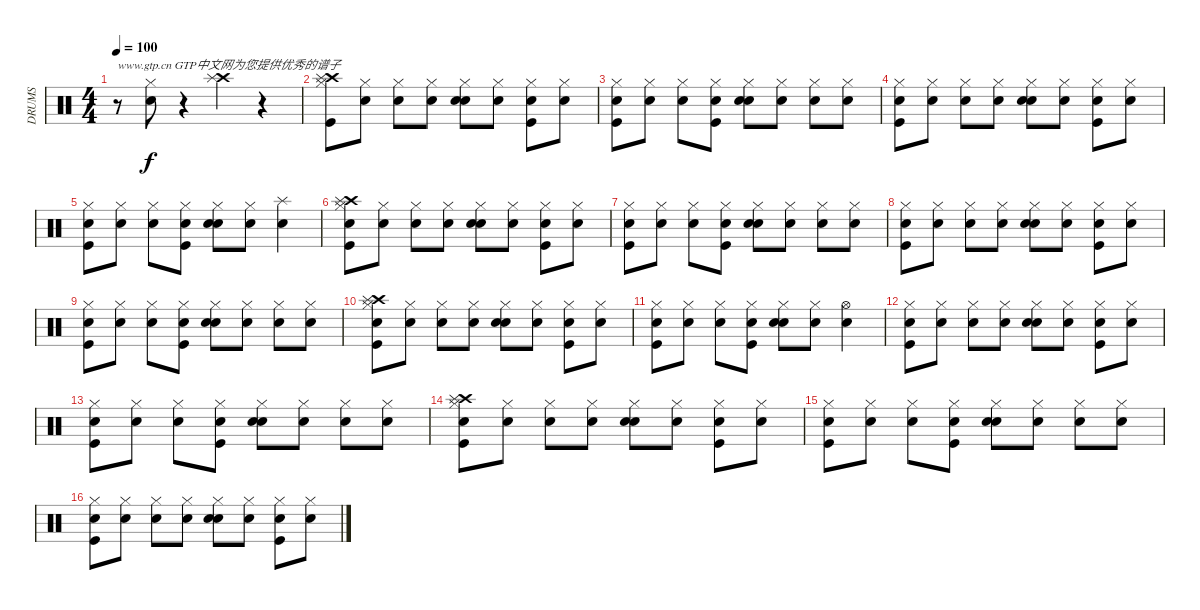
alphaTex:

\track ("DRUMS" "DRUMS") {instrument percussion}
\staff {score}
\articulation defaults
\ts (4 4)
\tempo 100
\clef neutral
\ks c
r.8{txt "www.gtp.cn GTP中文网为您提供优秀的谱子" dy f} ("Snare (hit) 2" "Hi-Hat (closed)").8 r.4 ("Crash high (hit)" "Splash (hit)").4 r.4 |
("Kick (hit)" "Crash high (hit)" "Splash (hit)" "Hi-Hat (closed)").8 ("Snare (hit)" "Hi-Hat (closed)").8 ("Snare (hit)" "Hi-Hat (closed)").8 ("Snare (hit)" "Hi-Hat (closed)").8 ("Snare (hit)" "Snare (hit) 2" "Hi-Hat (closed)").8 ("Snare (hit)" "Hi-Hat (closed)").8 ("Snare (hit)" "Kick (hit)" "Hi-Hat (closed)").8 ("Snare (hit)" "Hi-Hat (closed)").8 |
("Snare (hit)" "Kick (hit)" "Hi-Hat (closed)").8 ("Snare (hit)" "Hi-Hat (closed)").8 ("Snare (hit)" "Hi-Hat (closed)").8 ("Snare (hit)" "Kick (hit)" "Hi-Hat (closed)").8 ("Snare (hit)" "Snare (hit) 2" "Hi-Hat (closed)").8 ("Snare (hit)" "Hi-Hat (closed)").8 ("Snare (hit)" "Hi-Hat (closed)").8 ("Snare (hit)" "Hi-Hat (closed)").8 |
("Snare (hit)" "Kick (hit)" "Hi-Hat (closed)").8 ("Snare (hit)" "Hi-Hat (closed)").8 ("Snare (hit)" "Hi-Hat (closed)").8 ("Snare (hit)" "Hi-Hat (closed)").8 ("Snare (hit)" "Snare (hit) 2" "Hi-Hat (closed)").8 ("Snare (hit)" "Hi-Hat (closed)").8 ("Snare (hit)" "Kick (hit)" "Hi-Hat (closed)").8 ("Snare (hit)" "Hi-Hat (closed)").8 |
("Snare (hit)" "Kick (hit)" "Hi-Hat (closed)").8 ("Snare (hit)" "Hi-Hat (closed)").8 ("Snare (hit)" "Hi-Hat (closed)").8 ("Snare (hit)" "Kick (hit)" "Hi-Hat (closed)").8 ("Snare (hit)" "Snare (hit) 2" "Hi-Hat (closed)").8 ("Snare (hit)" "Hi-Hat (closed)").8 ("Snare (hit)" "Splash (hit)").4 |
("Snare (hit)" "Kick (hit)" "Crash high (hit)" "Splash (hit)" "Hi-Hat (closed)").8 ("Snare (hit)" "Hi-Hat (closed)").8 ("Snare (hit)" "Hi-Hat (closed)").8 ("Snare (hit)" "Hi-Hat (closed)").8 ("Snare (hit)" "Snare (hit) 2" "Hi-Hat (closed)").8 ("Snare (hit)" "Hi-Hat (closed)").8 ("Snare (hit)" "Kick (hit)" "Hi-Hat (closed)").8 ("Snare (hit)" "Hi-Hat (closed)").8 |
("Snare (hit)" "Kick (hit)" "Hi-Hat (closed)").8 ("Snare (hit)" "Hi-Hat (closed)").8 ("Snare (hit)" "Hi-Hat (closed)").8 ("Snare (hit)" "Kick (hit)" "Hi-Hat (closed)").8 ("Snare (hit)" "Snare (hit) 2" "Hi-Hat (closed)").8 ("Snare (hit)" "Hi-Hat (closed)").8 ("Snare (hit)" "Hi-Hat (closed)").8 ("Snare (hit)" "Hi-Hat (closed)").8 |
("Snare (hit)" "Kick (hit)" "Hi-Hat (closed)").8 ("Snare (hit)" "Hi-Hat (closed)").8 ("Snare (hit)" "Hi-Hat (closed)").8 ("Snare (hit)" "Hi-Hat (closed)").8 ("Snare (hit)" "Snare (hit) 2" "Hi-Hat (closed)").8 ("Snare (hit)" "Hi-Hat (closed)").8 ("Snare (hit)" "Kick (hit)" "Hi-Hat (closed)").8 ("Snare (hit)" "Hi-Hat (closed)").8 |
("Snare (hit)" "Kick (hit)" "Hi-Hat (closed)").8 ("Snare (hit)" "Hi-Hat (closed)").8 ("Snare (hit)" "Hi-Hat (closed)").8 ("Snare (hit)" "Kick (hit)" "Hi-Hat (closed)").8 ("Snare (hit)" "Snare (hit) 2" "Hi-Hat (closed)").8 ("Snare (hit)" "Hi-Hat (closed)").8 ("Snare (hit)" "Hi-Hat (closed)").8 ("Snare (hit)" "Hi-Hat (closed)").8 |
("Snare (hit)" "Kick (hit)" "Crash high (hit)" "Splash (hit)" "Hi-Hat (closed)").8 ("Snare (hit)" "Hi-Hat (closed)").8 ("Snare (hit)" "Hi-Hat (closed)").8 ("Snare (hit)" "Hi-Hat (closed)").8 ("Snare (hit)" "Snare (hit) 2" "Hi-Hat (closed)").8 ("Snare (hit)" "Hi-Hat (closed)").8 ("Snare (hit)" "Kick (hit)" "Hi-Hat (closed)").8 ("Snare (hit)" "Hi-Hat (closed)").8 |
("Snare (hit)" "Kick (hit)" "Hi-Hat (closed)").8 ("Snare (hit)" "Hi-Hat (closed)").8 ("Snare (hit)" "Hi-Hat (closed)").8 ("Snare (hit)" "Kick (hit)" "Hi-Hat (closed)").8 ("Snare (hit)" "Snare (hit) 2" "Hi-Hat (closed)").8 ("Snare (hit)" "Hi-Hat (closed)").8 ("Snare (hit)" "Hi-Hat (open)").4 |
("Snare (hit)" "Kick (hit)" "Hi-Hat (closed)").8 ("Snare (hit)" "Hi-Hat (closed)").8 ("Snare (hit)" "Hi-Hat (closed)").8 ("Snare (hit)" "Hi-Hat (closed)").8 ("Snare (hit)" "Snare (hit) 2" "Hi-Hat (closed)").8 ("Snare (hit)" "Hi-Hat (closed)").8 ("Snare (hit)" "Kick (hit)" "Hi-Hat (closed)").8 ("Snare (hit)" "Hi-Hat (closed)").8 |
("Snare (hit)" "Kick (hit)" "Hi-Hat (closed)").8 ("Snare (hit)" "Hi-Hat (closed)").8 ("Snare (hit)" "Hi-Hat (closed)").8 ("Snare (hit)" "Kick (hit)" "Hi-Hat (closed)").8 ("Snare (hit)" "Snare (hit) 2" "Hi-Hat (closed)").8 ("Snare (hit)" "Hi-Hat (closed)").8 ("Snare (hit)" "Hi-Hat (closed)").8 ("Snare (hit)" "Hi-Hat (closed)").8 |
("Snare (hit)" "Kick (hit)" "Crash high (hit)" "Splash (hit)" "Hi-Hat (closed)").8 ("Snare (hit)" "Hi-Hat (closed)").8 ("Snare (hit)" "Hi-Hat (closed)").8 ("Snare (hit)" "Hi-Hat (closed)").8 ("Snare (hit)" "Snare (hit) 2" "Hi-Hat (closed)").8 ("Snare (hit)" "Hi-Hat (closed)").8 ("Snare (hit)" "Kick (hit)" "Hi-Hat (closed)").8 ("Snare (hit)" "Hi-Hat (closed)").8 |
("Snare (hit)" "Kick (hit)" "Hi-Hat (closed)").8 ("Snare (hit)" "Hi-Hat (closed)").8 ("Snare (hit)" "Hi-Hat (closed)").8 ("Snare (hit)" "Kick (hit)" "Hi-Hat (closed)").8 ("Snare (hit)" "Snare (hit) 2" "Hi-Hat (closed)").8 ("Snare (hit)" "Hi-Hat (closed)").8 ("Snare (hit)" "Hi-Hat (closed)").8 ("Snare (hit)" "Hi-Hat (closed)").8 |
("Snare (hit)" "Kick (hit)" "Hi-Hat (closed)").8 ("Snare (hit)" "Hi-Hat (closed)").8 ("Snare (hit)" "Hi-Hat (closed)").8 ("Snare (hit)" "Hi-Hat (closed)").8 ("Snare (hit)" "Snare (hit) 2" "Hi-Hat (closed)").8 ("Snare (hit)" "Hi-Hat (closed)").8 ("Snare (hit)" "Kick (hit)" "Hi-Hat (closed)").8 ("Snare (hit)" "Hi-Hat (closed)").8
